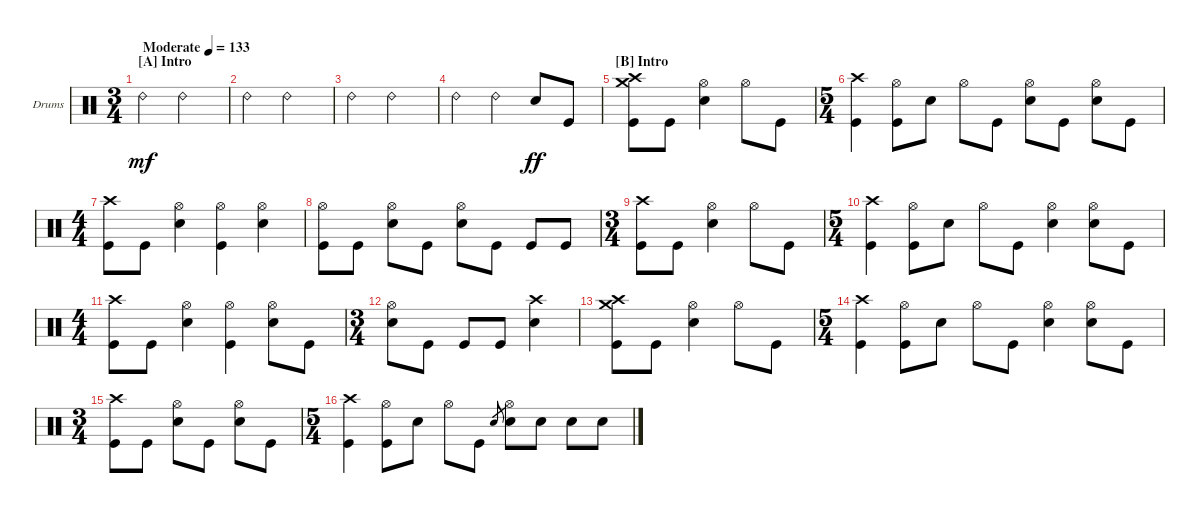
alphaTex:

\bracketExtendMode groupsimilarinstruments
\firstSystemTrackNameOrientation horizontal
\otherSystemsTrackNameOrientation horizontal
\track ("Drumkit" "Drums") {instrument percussion}
\staff {score}
\articulation defaults
\ts (3 4)
\beaming (8 2 2 2)
\section ("A" "Intro")
\tempo (133 "Moderate")
\clef neutral
\ks c "Ride (bell) 2".4{dy mf} "Ride (bell) 2".2
|
"Ride (bell) 2".4 "Ride (bell) 2".2 |
"Ride (bell) 2".4 "Ride (bell) 2".2 |
"Ride (bell) 2".4 "Ride (bell) 2".4 "Snare (hit) 2".8{dy ff} "Kick (hit)".8 |
\section ("B" "Intro")
("Kick (hit)" "Crash medium (hit)" "Crash high (hit)").8 "Kick (hit)".8 ("Hi-Hat (open)" "Snare (hit) 2").4 "Hi-Hat (open)".8 "Kick (hit)".8 |
\ts (5 4)
("Crash high (hit)" "Kick (hit)").4 ("Hi-Hat (open)" "Kick (hit)").8 "Snare (hit) 2".8 "Hi-Hat (open)".8 "Kick (hit)".8 ("Hi-Hat (open)" "Snare (hit) 2").8 "Kick (hit)".8 ("Hi-Hat (open)" "Snare (hit) 2").8 "Kick (hit)".8 |
\ts (4 4)
("Crash high (hit)" "Kick (hit)").8 "Kick (hit)".8 ("Hi-Hat (open)" "Snare (hit) 2").4 ("Hi-Hat (open)" "Kick (hit)").4 ("Hi-Hat (open)" "Snare (hit) 2").4 |
("Hi-Hat (open)" "Kick (hit)").8 "Kick (hit)".8 ("Hi-Hat (open)" "Snare (hit) 2").8 "Kick (hit)".8 ("Hi-Hat (open)" "Snare (hit) 2").8 "Kick (hit)".8 "Kick (hit)".8 "Kick (hit)".8 |
\ts (3 4)
("Crash high (hit)" "Kick (hit)").8 "Kick (hit)".8 ("Hi-Hat (open)" "Snare (hit) 2").4 "Hi-Hat (open)".8 "Kick (hit)".8 |
\ts (5 4)
("Crash high (hit)" "Kick (hit)").4 ("Hi-Hat (open)" "Kick (hit)").8 "Snare (hit) 2".8 "Hi-Hat (open)".8 "Kick (hit)".8 ("Hi-Hat (open)" "Snare (hit) 2").4 ("Hi-Hat (open)" "Snare (hit) 2").8 "Kick (hit)".8 |
\ts (4 4)
("Crash high (hit)" "Kick (hit)").8 "Kick (hit)".8 ("Hi-Hat (open)" "Snare (hit) 2").4 ("Hi-Hat (open)" "Kick (hit)").4 ("Hi-Hat (open)" "Snare (hit) 2").8 "Kick (hit)".8 |
\ts (3 4)
("Hi-Hat (open)" "Snare (hit) 2").8 "Kick (hit)".8 "Kick (hit)".8 "Kick (hit)".8 ("Crash high (hit)" "Snare (hit) 2").4 |
("Kick (hit)" "Crash medium (hit)" "Crash high (hit)").8 "Kick (hit)".8 ("Hi-Hat (open)" "Snare (hit) 2").4 "Hi-Hat (open)".8 "Kick (hit)".8 |
\ts (5 4)
("Crash high (hit)" "Kick (hit)").4 ("Hi-Hat (open)" "Kick (hit)").8 "Snare (hit) 2".8 "Hi-Hat (open)".8 "Kick (hit)".8 ("Hi-Hat (open)" "Snare (hit) 2").4 ("Hi-Hat (open)" "Snare (hit) 2").8 "Kick (hit)".8 |
\ts (3 4)
("Crash high (hit)" "Kick (hit)").8 "Kick (hit)".8 ("Hi-Hat (open)" "Snare (hit) 2").8 "Kick (hit)".8 ("Hi-Hat (open)" "Snare (hit) 2").8 "Kick (hit)".8 |
\ts (5 4)
("Kick (hit)" "Crash high (hit)").4 ("Hi-Hat (open)" "Kick (hit)").8 "Snare (hit) 2".8 "Hi-Hat (open)".8 "Kick (hit)".8 "Snare (hit) 2".8{gr} ("Hi-Hat (open)" "Snare (hit) 2").8 "Snare (hit) 2".8 "Snare (hit) 2".8 "Snare (hit) 2".8
